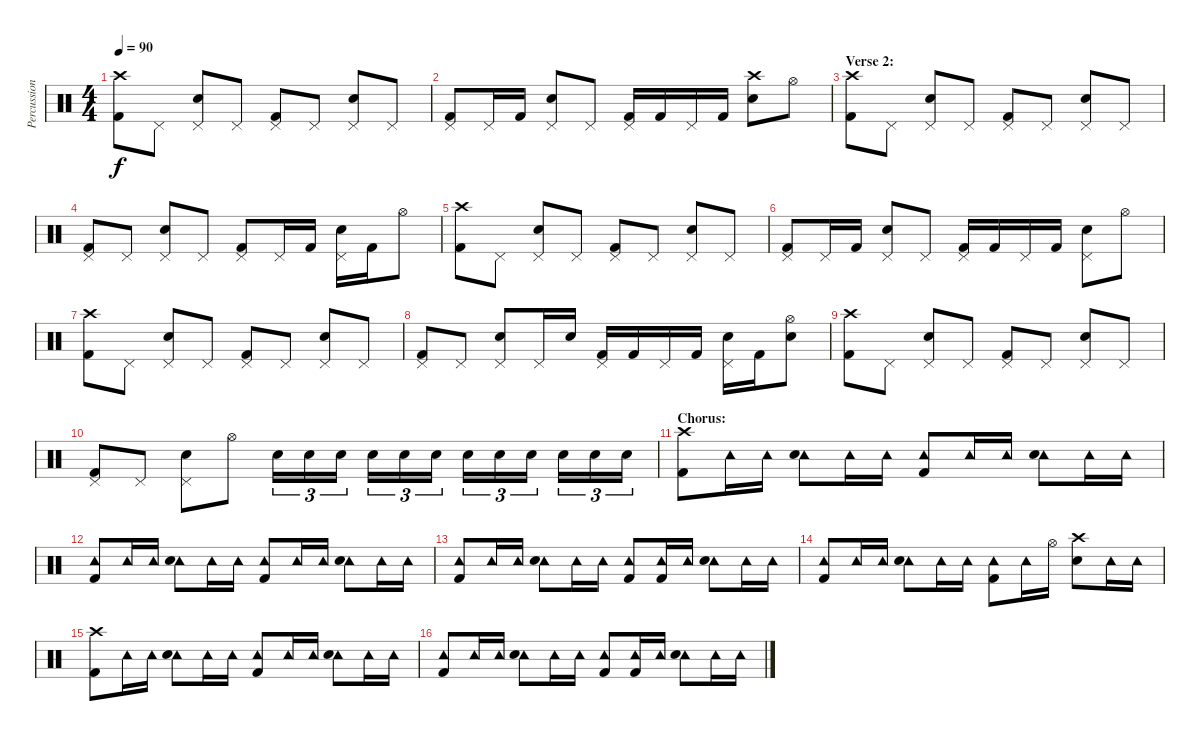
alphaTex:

\track ("Percussion" "Percussion") {instrument percussion}
\staff {score}
\articulation defaults
\ts (4 4)
\tempo 90
\clef neutral
\ks c
("Crash high (hit)" "Kick (hit) 2").8{dy f} "Pedal Hi-Hat (hit)".8 ("Pedal Hi-Hat (hit)" "Electric Snare (hit)").8 "Pedal Hi-Hat (hit)".8 ("Pedal Hi-Hat (hit)" "Kick (hit) 2").8 "Pedal Hi-Hat (hit)".8 ("Pedal Hi-Hat (hit)" "Electric Snare (hit)").8 "Pedal Hi-Hat (hit)".8 |
("Pedal Hi-Hat (hit)" "Kick (hit) 2").8 "Pedal Hi-Hat (hit)".16 "Kick (hit) 2".16 ("Pedal Hi-Hat (hit)" "Electric Snare (hit)").8 "Pedal Hi-Hat (hit)".8 ("Pedal Hi-Hat (hit)" "Kick (hit) 2").16 "Kick (hit) 2".16 "Pedal Hi-Hat (hit)".16 "Kick (hit) 2".16 ("Crash high (hit)" "Electric Snare (hit)").8 "Hi-Hat (open)".8 |
\section ("" "Verse 2:")
("Crash high (hit)" "Kick (hit) 2").8 "Pedal Hi-Hat (hit)".8 ("Pedal Hi-Hat (hit)" "Electric Snare (hit)").8 "Pedal Hi-Hat (hit)".8 ("Pedal Hi-Hat (hit)" "Kick (hit) 2").8 "Pedal Hi-Hat (hit)".8 ("Pedal Hi-Hat (hit)" "Electric Snare (hit)").8 "Pedal Hi-Hat (hit)".8 |
("Pedal Hi-Hat (hit)" "Kick (hit) 2").8 "Pedal Hi-Hat (hit)".8 ("Pedal Hi-Hat (hit)" "Electric Snare (hit)").8 "Pedal Hi-Hat (hit)".8 ("Pedal Hi-Hat (hit)" "Kick (hit) 2").8 "Pedal Hi-Hat (hit)".16 "Kick (hit) 2".16 ("Pedal Hi-Hat (hit)" "Electric Snare (hit)").16 "Kick (hit) 2".16 "Hi-Hat (open)".8 |
("Crash high (hit)" "Kick (hit) 2").8 "Pedal Hi-Hat (hit)".8 ("Pedal Hi-Hat (hit)" "Electric Snare (hit)").8 "Pedal Hi-Hat (hit)".8 ("Pedal Hi-Hat (hit)" "Kick (hit) 2").8 "Pedal Hi-Hat (hit)".8 ("Pedal Hi-Hat (hit)" "Electric Snare (hit)").8 "Pedal Hi-Hat (hit)".8 |
("Pedal Hi-Hat (hit)" "Kick (hit) 2").8 "Pedal Hi-Hat (hit)".16 "Kick (hit) 2".16 ("Pedal Hi-Hat (hit)" "Electric Snare (hit)").8 "Pedal Hi-Hat (hit)".8 ("Pedal Hi-Hat (hit)" "Kick (hit) 2").16 "Kick (hit) 2".16 "Pedal Hi-Hat (hit)".16 "Kick (hit) 2".16 ("Pedal Hi-Hat (hit)" "Electric Snare (hit)").8 "Hi-Hat (open)".8 |
("Crash high (hit)" "Kick (hit) 2").8 "Pedal Hi-Hat (hit)".8 ("Pedal Hi-Hat (hit)" "Electric Snare (hit)").8 "Pedal Hi-Hat (hit)".8 ("Pedal Hi-Hat (hit)" "Kick (hit) 2").8 "Pedal Hi-Hat (hit)".8 ("Pedal Hi-Hat (hit)" "Electric Snare (hit)").8 "Pedal Hi-Hat (hit)".8 |
("Pedal Hi-Hat (hit)" "Kick (hit) 2").8 "Pedal Hi-Hat (hit)".8 ("Pedal Hi-Hat (hit)" "Electric Snare (hit)").8 "Pedal Hi-Hat (hit)".16 "Electric Snare (hit)".16 ("Pedal Hi-Hat (hit)" "Kick (hit) 2").16 "Kick (hit) 2".16 "Pedal Hi-Hat (hit)".16 "Kick (hit) 2".16 ("Pedal Hi-Hat (hit)" "Electric Snare (hit)").16 "Kick (hit) 2".16 ("Hi-Hat (open)" "Electric Snare (hit)").8 |
("Crash high (hit)" "Kick (hit) 2").8 "Pedal Hi-Hat (hit)".8 ("Pedal Hi-Hat (hit)" "Electric Snare (hit)").8 "Pedal Hi-Hat (hit)".8 ("Pedal Hi-Hat (hit)" "Kick (hit) 2").8 "Pedal Hi-Hat (hit)".8 ("Pedal Hi-Hat (hit)" "Electric Snare (hit)").8 "Pedal Hi-Hat (hit)".8 |
("Pedal Hi-Hat (hit)" "Kick (hit) 2").8 "Pedal Hi-Hat (hit)".8 ("Pedal Hi-Hat (hit)" "Electric Snare (hit)").8 "Hi-Hat (open)".8 "Electric Snare (hit)".16{tu (3 2)} "Electric Snare (hit)".16{tu (3 2)} "Electric Snare (hit)".16{tu (3 2)} "Electric Snare (hit)".16{tu (3 2)} "Electric Snare (hit)".16{tu (3 2)} "Electric Snare (hit)".16{tu (3 2)} "Electric Snare (hit)".16{tu (3 2)} "Electric Snare (hit)".16{tu (3 2)} "Electric Snare (hit)".16{tu (3 2)} "Electric Snare (hit)".16{tu (3 2)} "Electric Snare (hit)".16{tu (3 2)} "Electric Snare (hit)".16{tu (3 2)} |
\section ("" "Chorus:")
("Crash high (hit)" "Kick (hit) 2").8 "Tambourine (hit)".16 "Tambourine (hit)".16 ("Tambourine (hit)" "Electric Snare (hit)").8 "Tambourine (hit)".16 "Tambourine (hit)".16 ("Tambourine (hit)" "Kick (hit) 2").8 "Tambourine (hit)".16 "Tambourine (hit)".16 ("Tambourine (hit)" "Electric Snare (hit)").8 "Tambourine (hit)".16 "Tambourine (hit)".16 |
("Tambourine (hit)" "Kick (hit) 2").8 "Tambourine (hit)".16 "Tambourine (hit)".16 ("Tambourine (hit)" "Electric Snare (hit)").8 "Tambourine (hit)".16 "Tambourine (hit)".16 ("Tambourine (hit)" "Kick (hit) 2").8 "Tambourine (hit)".16 "Tambourine (hit)".16 ("Tambourine (hit)" "Electric Snare (hit)").8 "Tambourine (hit)".16 "Tambourine (hit)".16 |
("Tambourine (hit)" "Kick (hit) 2").8 "Tambourine (hit)".16 "Tambourine (hit)".16 ("Tambourine (hit)" "Electric Snare (hit)").8 "Tambourine (hit)".16 "Tambourine (hit)".16 ("Tambourine (hit)" "Kick (hit) 2").8 ("Tambourine (hit)" "Kick (hit) 2").16 "Tambourine (hit)".16 ("Tambourine (hit)" "Electric Snare (hit)").8 "Tambourine (hit)".16 "Tambourine (hit)".16 |
("Tambourine (hit)" "Kick (hit) 2").8 "Tambourine (hit)".16 "Tambourine (hit)".16 ("Tambourine (hit)" "Electric Snare (hit)").8 "Tambourine (hit)".16 "Tambourine (hit)".16 ("Tambourine (hit)" "Kick (hit) 2").8 "Tambourine (hit)".16 "Hi-Hat (open)".16 ("Crash high (hit)" "Electric Snare (hit)").8 "Tambourine (hit)".16 "Tambourine (hit)".16 |
("Crash high (hit)" "Kick (hit) 2").8 "Tambourine (hit)".16 "Tambourine (hit)".16 ("Tambourine (hit)" "Electric Snare (hit)").8 "Tambourine (hit)".16 "Tambourine (hit)".16 ("Tambourine (hit)" "Kick (hit) 2").8 "Tambourine (hit)".16 "Tambourine (hit)".16 ("Tambourine (hit)" "Electric Snare (hit)").8 "Tambourine (hit)".16 "Tambourine (hit)".16 |
("Tambourine (hit)" "Kick (hit) 2").8 "Tambourine (hit)".16 "Tambourine (hit)".16 ("Tambourine (hit)" "Electric Snare (hit)").8 "Tambourine (hit)".16 "Tambourine (hit)".16 ("Tambourine (hit)" "Kick (hit) 2").8 ("Tambourine (hit)" "Kick (hit) 2").16 "Tambourine (hit)".16 ("Tambourine (hit)" "Electric Snare (hit)").8 "Tambourine (hit)".16 "Tambourine (hit)".16
